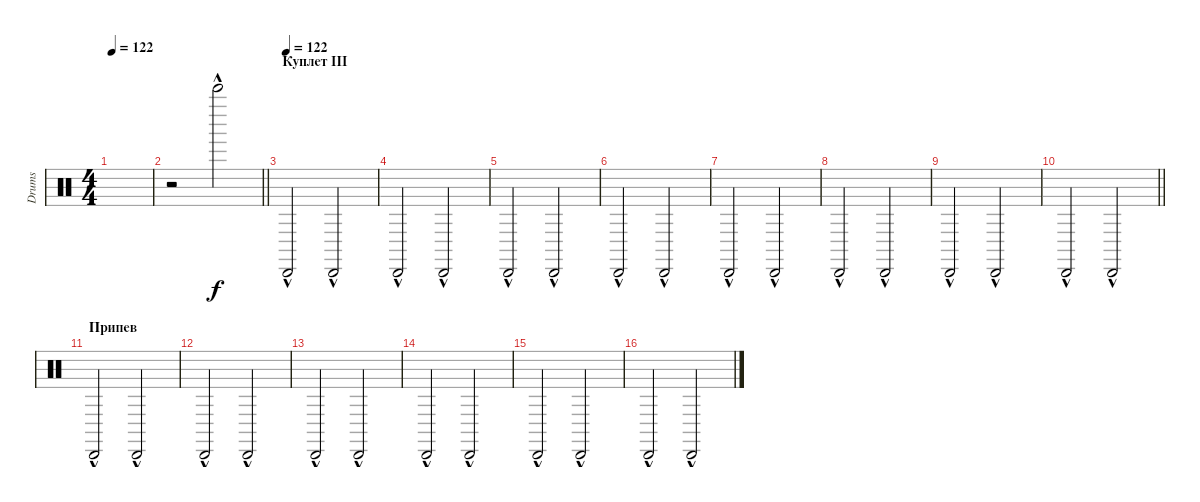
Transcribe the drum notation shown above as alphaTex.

\track ("Drums" "Drums") {instrument percussion}
\staff {score}
\articulation defaults
\ts (4 4)
\tempo 122
\clef neutral
\ks c
|
\barLineRight lightlight
r.2 "Bell Tree (hit)"{hac}.2 |
\section ("" "Куплет III")
\tempo (122)
"Cabasa (hit)"{hac}.2 "Cabasa (hit)"{hac}.2 |
"Cabasa (hit)"{hac}.2 "Cabasa (hit)"{hac}.2 |
"Cabasa (hit)"{hac}.2 "Cabasa (hit)"{hac}.2 |
"Cabasa (hit)"{hac}.2 "Cabasa (hit)"{hac}.2 |
"Cabasa (hit)"{hac}.2 "Cabasa (hit)"{hac}.2 |
"Cabasa (hit)"{hac}.2 "Cabasa (hit)"{hac}.2 |
"Cabasa (hit)"{hac}.2 "Cabasa (hit)"{hac}.2 |
\barLineRight lightlight "Cabasa (hit)"{hac}.2 "Cabasa (hit)"{hac}.2
|
\section ("" "Припев")
"Cabasa (hit)"{hac}.2 "Cabasa (hit)"{hac}.2 |
"Cabasa (hit)"{hac}.2 "Cabasa (hit)"{hac}.2 |
"Cabasa (hit)"{hac}.2 "Cabasa (hit)"{hac}.2 |
"Cabasa (hit)"{hac}.2 "Cabasa (hit)"{hac}.2 |
"Cabasa (hit)"{hac}.2 "Cabasa (hit)"{hac}.2 |
"Cabasa (hit)"{hac}.2 "Cabasa (hit)"{hac}.2
